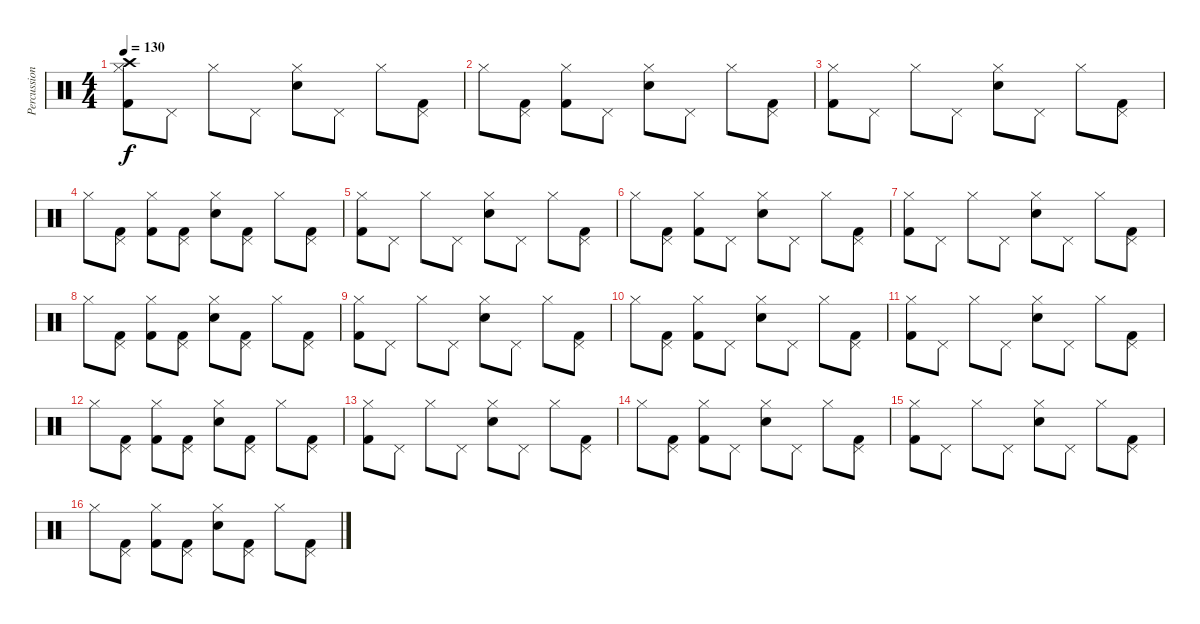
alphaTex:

\track ("Percussion" "Percussion") {instrument percussion}
\staff {score}
\articulation defaults
\ts (4 4)
\tempo 130
\clef neutral
\ks c
("Crash high (hit)" "Hi-Hat (closed)" "Kick (hit) 2").8{dy f} "Pedal Hi-Hat (hit)".8 "Hi-Hat (closed)".8 "Pedal Hi-Hat (hit)".8 ("Hi-Hat (closed)" "Snare (hit) 2").8 "Pedal Hi-Hat (hit)".8 "Hi-Hat (closed)".8 ("Pedal Hi-Hat (hit)" "Kick (hit) 2").8 |
"Hi-Hat (closed)".8 ("Pedal Hi-Hat (hit)" "Kick (hit) 2").8 ("Hi-Hat (closed)" "Kick (hit) 2").8 "Pedal Hi-Hat (hit)".8 ("Hi-Hat (closed)" "Snare (hit) 2").8 "Pedal Hi-Hat (hit)".8 "Hi-Hat (closed)".8 ("Pedal Hi-Hat (hit)" "Kick (hit) 2").8 |
("Hi-Hat (closed)" "Kick (hit) 2").8 "Pedal Hi-Hat (hit)".8 "Hi-Hat (closed)".8 "Pedal Hi-Hat (hit)".8 ("Hi-Hat (closed)" "Snare (hit) 2").8 "Pedal Hi-Hat (hit)".8 "Hi-Hat (closed)".8 ("Pedal Hi-Hat (hit)" "Kick (hit) 2").8 |
"Hi-Hat (closed)".8 ("Pedal Hi-Hat (hit)" "Kick (hit) 2").8 ("Hi-Hat (closed)" "Kick (hit) 2").8 ("Pedal Hi-Hat (hit)" "Kick (hit) 2").8 ("Hi-Hat (closed)" "Snare (hit) 2").8 ("Pedal Hi-Hat (hit)" "Kick (hit) 2").8 "Hi-Hat (closed)".8 ("Pedal Hi-Hat (hit)" "Kick (hit) 2").8 |
("Hi-Hat (closed)" "Kick (hit) 2").8 "Pedal Hi-Hat (hit)".8 "Hi-Hat (closed)".8 "Pedal Hi-Hat (hit)".8 ("Hi-Hat (closed)" "Snare (hit) 2").8 "Pedal Hi-Hat (hit)".8 "Hi-Hat (closed)".8 ("Pedal Hi-Hat (hit)" "Kick (hit) 2").8 |
"Hi-Hat (closed)".8 ("Pedal Hi-Hat (hit)" "Kick (hit) 2").8 ("Hi-Hat (closed)" "Kick (hit) 2").8 "Pedal Hi-Hat (hit)".8 ("Hi-Hat (closed)" "Snare (hit) 2").8 "Pedal Hi-Hat (hit)".8 "Hi-Hat (closed)".8 ("Pedal Hi-Hat (hit)" "Kick (hit) 2").8 |
("Hi-Hat (closed)" "Kick (hit) 2").8 "Pedal Hi-Hat (hit)".8 "Hi-Hat (closed)".8 "Pedal Hi-Hat (hit)".8 ("Hi-Hat (closed)" "Snare (hit) 2").8 "Pedal Hi-Hat (hit)".8 "Hi-Hat (closed)".8 ("Pedal Hi-Hat (hit)" "Kick (hit) 2").8 |
"Hi-Hat (closed)".8 ("Pedal Hi-Hat (hit)" "Kick (hit) 2").8 ("Hi-Hat (closed)" "Kick (hit) 2").8 ("Pedal Hi-Hat (hit)" "Kick (hit) 2").8 ("Hi-Hat (closed)" "Snare (hit) 2").8 ("Pedal Hi-Hat (hit)" "Kick (hit) 2").8 "Hi-Hat (closed)".8 ("Pedal Hi-Hat (hit)" "Kick (hit) 2").8 |
("Hi-Hat (closed)" "Kick (hit) 2").8 "Pedal Hi-Hat (hit)".8 "Hi-Hat (closed)".8 "Pedal Hi-Hat (hit)".8 ("Hi-Hat (closed)" "Snare (hit) 2").8 "Pedal Hi-Hat (hit)".8 "Hi-Hat (closed)".8 ("Pedal Hi-Hat (hit)" "Kick (hit) 2").8 |
"Hi-Hat (closed)".8 ("Pedal Hi-Hat (hit)" "Kick (hit) 2").8 ("Hi-Hat (closed)" "Kick (hit) 2").8 "Pedal Hi-Hat (hit)".8 ("Hi-Hat (closed)" "Snare (hit) 2").8 "Pedal Hi-Hat (hit)".8 "Hi-Hat (closed)".8 ("Pedal Hi-Hat (hit)" "Kick (hit) 2").8 |
("Hi-Hat (closed)" "Kick (hit) 2").8 "Pedal Hi-Hat (hit)".8 "Hi-Hat (closed)".8 "Pedal Hi-Hat (hit)".8 ("Hi-Hat (closed)" "Snare (hit) 2").8 "Pedal Hi-Hat (hit)".8 "Hi-Hat (closed)".8 ("Pedal Hi-Hat (hit)" "Kick (hit) 2").8 |
"Hi-Hat (closed)".8 ("Pedal Hi-Hat (hit)" "Kick (hit) 2").8 ("Hi-Hat (closed)" "Kick (hit) 2").8 ("Pedal Hi-Hat (hit)" "Kick (hit) 2").8 ("Hi-Hat (closed)" "Snare (hit) 2").8 ("Pedal Hi-Hat (hit)" "Kick (hit) 2").8 "Hi-Hat (closed)".8 ("Pedal Hi-Hat (hit)" "Kick (hit) 2").8 |
("Hi-Hat (closed)" "Kick (hit) 2").8 "Pedal Hi-Hat (hit)".8 "Hi-Hat (closed)".8 "Pedal Hi-Hat (hit)".8 ("Hi-Hat (closed)" "Snare (hit) 2").8 "Pedal Hi-Hat (hit)".8 "Hi-Hat (closed)".8 ("Pedal Hi-Hat (hit)" "Kick (hit) 2").8 |
"Hi-Hat (closed)".8 ("Pedal Hi-Hat (hit)" "Kick (hit) 2").8 ("Hi-Hat (closed)" "Kick (hit) 2").8 "Pedal Hi-Hat (hit)".8 ("Hi-Hat (closed)" "Snare (hit) 2").8 "Pedal Hi-Hat (hit)".8 "Hi-Hat (closed)".8 ("Pedal Hi-Hat (hit)" "Kick (hit) 2").8 |
("Hi-Hat (closed)" "Kick (hit) 2").8 "Pedal Hi-Hat (hit)".8 "Hi-Hat (closed)".8 "Pedal Hi-Hat (hit)".8 ("Hi-Hat (closed)" "Snare (hit) 2").8 "Pedal Hi-Hat (hit)".8 "Hi-Hat (closed)".8 ("Pedal Hi-Hat (hit)" "Kick (hit) 2").8 |
"Hi-Hat (closed)".8 ("Pedal Hi-Hat (hit)" "Kick (hit) 2").8 ("Hi-Hat (closed)" "Kick (hit) 2").8 ("Pedal Hi-Hat (hit)" "Kick (hit) 2").8 ("Hi-Hat (closed)" "Snare (hit) 2").8 ("Pedal Hi-Hat (hit)" "Kick (hit) 2").8 "Hi-Hat (closed)".8 ("Pedal Hi-Hat (hit)" "Kick (hit) 2").8
